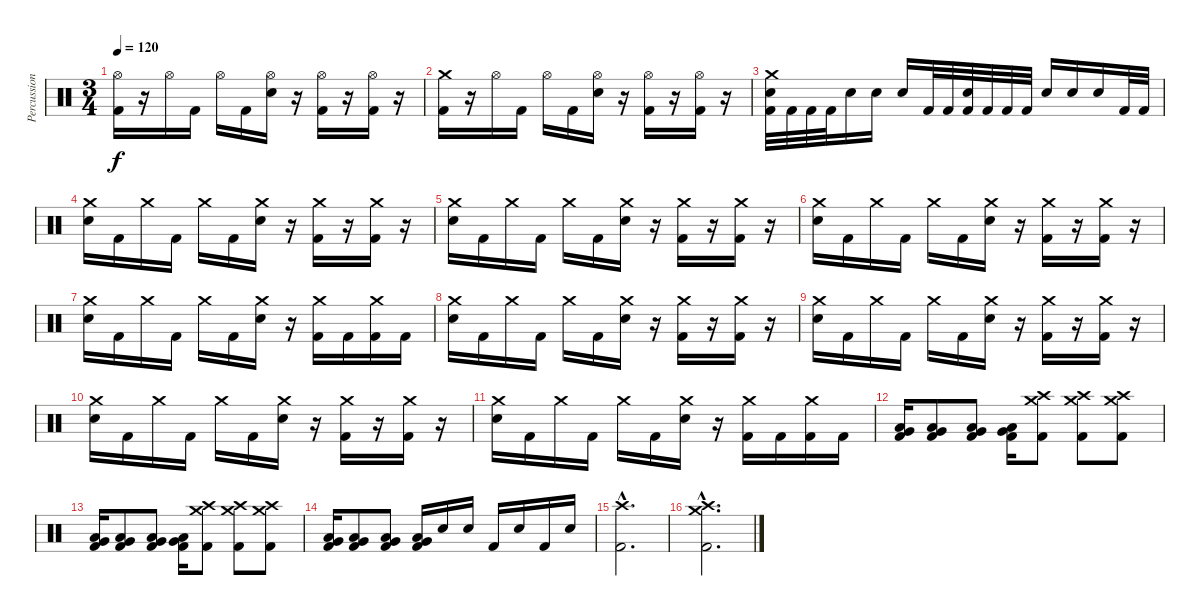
\track ("Percussion" "Percussion") {instrument percussion}
\staff {score}
\articulation defaults
\ts (3 4)
\tempo 120
\clef neutral
\ks c
("Hi-Hat (open)" "Kick (hit) 2").16{dy f} r.16 "Hi-Hat (open)".16 "Kick (hit) 2".16 "Hi-Hat (open)".16 "Kick (hit) 2".16 ("Hi-Hat (open)" "Electric Snare (hit)").16 r.16 ("Hi-Hat (open)" "Kick (hit) 2").16 r.16 ("Hi-Hat (open)" "Kick (hit) 2").16 r.16 |
("Crash medium (hit)" "Kick (hit) 2").16 r.16 "Hi-Hat (open)".16 "Kick (hit) 2".16 "Hi-Hat (open)".16 "Kick (hit) 2".16 ("Hi-Hat (open)" "Electric Snare (hit)").16 r.16 ("Hi-Hat (open)" "Kick (hit) 2").16 r.16 ("Hi-Hat (open)" "Kick (hit) 2").16 r.16 |
("Crash medium (hit)" "Electric Snare (hit)" "Kick (hit) 2").32 "Kick (hit) 2".32 "Kick (hit) 2".32 "Kick (hit) 2".32 "Electric Snare (hit)".16 "Electric Snare (hit)".16 "Electric Snare (hit)".16 "Kick (hit) 2".32 "Kick (hit) 2".32 ("Electric Snare (hit)" "Kick (hit) 2").32 "Kick (hit) 2".32 "Kick (hit) 2".32 "Kick (hit) 2".32 "Electric Snare (hit)".16 "Electric Snare (hit)".16 "Electric Snare (hit)".16 "Kick (hit) 2".32 "Kick (hit) 2".32 |
("Crash medium (hit)" "Electric Snare (hit)").16 "Kick (hit) 2".16 "Crash medium (hit)".16 "Kick (hit) 2".16 "Crash medium (hit)".16 "Kick (hit) 2".16 ("Crash medium (hit)" "Electric Snare (hit)").16 r.16 ("Crash medium (hit)" "Kick (hit) 2").16 r.16 ("Crash medium (hit)" "Kick (hit) 2").16 r.16 |
("Crash medium (hit)" "Electric Snare (hit)").16 "Kick (hit) 2".16 "Crash medium (hit)".16 "Kick (hit) 2".16 "Crash medium (hit)".16 "Kick (hit) 2".16 ("Crash medium (hit)" "Electric Snare (hit)").16 r.16 ("Crash medium (hit)" "Kick (hit) 2").16 r.16 ("Crash medium (hit)" "Kick (hit) 2").16 r.16 |
("Crash medium (hit)" "Electric Snare (hit)").16 "Kick (hit) 2".16 "Crash medium (hit)".16 "Kick (hit) 2".16 "Crash medium (hit)".16 "Kick (hit) 2".16 ("Crash medium (hit)" "Electric Snare (hit)").16 r.16 ("Crash medium (hit)" "Kick (hit) 2").16 r.16 ("Crash medium (hit)" "Kick (hit) 2").16 r.16 |
("Crash medium (hit)" "Electric Snare (hit)").16 "Kick (hit) 2".16 "Crash medium (hit)".16 "Kick (hit) 2".16 "Crash medium (hit)".16 "Kick (hit) 2".16 ("Crash medium (hit)" "Electric Snare (hit)").16 r.16 ("Crash medium (hit)" "Kick (hit) 2").16 "Kick (hit) 2".16 ("Crash medium (hit)" "Kick (hit) 2").16 "Kick (hit) 2".16 |
("Crash medium (hit)" "Electric Snare (hit)").16 "Kick (hit) 2".16 "Crash medium (hit)".16 "Kick (hit) 2".16 "Crash medium (hit)".16 "Kick (hit) 2".16 ("Crash medium (hit)" "Electric Snare (hit)").16 r.16 ("Crash medium (hit)" "Kick (hit) 2").16 r.16 ("Crash medium (hit)" "Kick (hit) 2").16 r.16 |
("Crash medium (hit)" "Electric Snare (hit)").16 "Kick (hit) 2".16 "Crash medium (hit)".16 "Kick (hit) 2".16 "Crash medium (hit)".16 "Kick (hit) 2".16 ("Crash medium (hit)" "Electric Snare (hit)").16 r.16 ("Crash medium (hit)" "Kick (hit) 2").16 r.16 ("Crash medium (hit)" "Kick (hit) 2").16 r.16 |
("Crash medium (hit)" "Electric Snare (hit)").16 "Kick (hit) 2".16 "Crash medium (hit)".16 "Kick (hit) 2".16 "Crash medium (hit)".16 "Kick (hit) 2".16 ("Crash medium (hit)" "Electric Snare (hit)").16 r.16 ("Crash medium (hit)" "Kick (hit) 2").16 r.16 ("Crash medium (hit)" "Kick (hit) 2").16 r.16 |
("Crash medium (hit)" "Electric Snare (hit)").16 "Kick (hit) 2".16 "Crash medium (hit)".16 "Kick (hit) 2".16 "Crash medium (hit)".16 "Kick (hit) 2".16 ("Crash medium (hit)" "Electric Snare (hit)").16 r.16 ("Crash medium (hit)" "Kick (hit) 2").16 "Kick (hit) 2".16 ("Crash medium (hit)" "Kick (hit) 2").16 "Kick (hit) 2".16 |
("Very Low Tom (hit)" "Low Floor Tom (hit)" "Kick (hit) 2").16 ("Very Low Tom (hit)" "Low Floor Tom (hit)" "Kick (hit) 2").8 ("Very Low Tom (hit)" "Low Floor Tom (hit)" "Kick (hit) 2").8 ("Very Low Tom (hit)" "Low Floor Tom (hit)" "Kick (hit) 2").16 ("Crash medium (hit)" "Crash high (hit)" "Kick (hit) 2").8 ("Crash medium (hit)" "Crash high (hit)" "Kick (hit) 2").8 ("Crash medium (hit)" "Crash high (hit)" "Kick (hit) 2").8 |
("Very Low Tom (hit)" "Low Floor Tom (hit)" "Kick (hit) 2").16 ("Very Low Tom (hit)" "Low Floor Tom (hit)" "Kick (hit) 2").8 ("Very Low Tom (hit)" "Low Floor Tom (hit)" "Kick (hit) 2").8 ("Very Low Tom (hit)" "Low Floor Tom (hit)" "Kick (hit) 2").16 ("Crash medium (hit)" "Crash high (hit)" "Kick (hit) 2").8 ("Crash medium (hit)" "Crash high (hit)" "Kick (hit) 2").8 ("Crash medium (hit)" "Crash high (hit)" "Kick (hit) 2").8 |
("Very Low Tom (hit)" "Low Floor Tom (hit)" "Kick (hit) 2").16 ("Very Low Tom (hit)" "Low Floor Tom (hit)" "Kick (hit) 2").8 ("Very Low Tom (hit)" "Low Floor Tom (hit)" "Kick (hit) 2").8 ("Very Low Tom (hit)" "Low Floor Tom (hit)" "Kick (hit) 2").16 "Electric Snare (hit)".16 "Electric Snare (hit)".16 "Kick (hit) 2".16 "Electric Snare (hit)".16 "Kick (hit) 2".16 "Electric Snare (hit)".16 |
("Crash high (hit)"{hac} "Kick (hit) 2"{hac}).2{d} |
("Crash high (hit)"{hac} "Crash medium (hit)"{hac} "Kick (hit) 2"{hac}).2{d}
